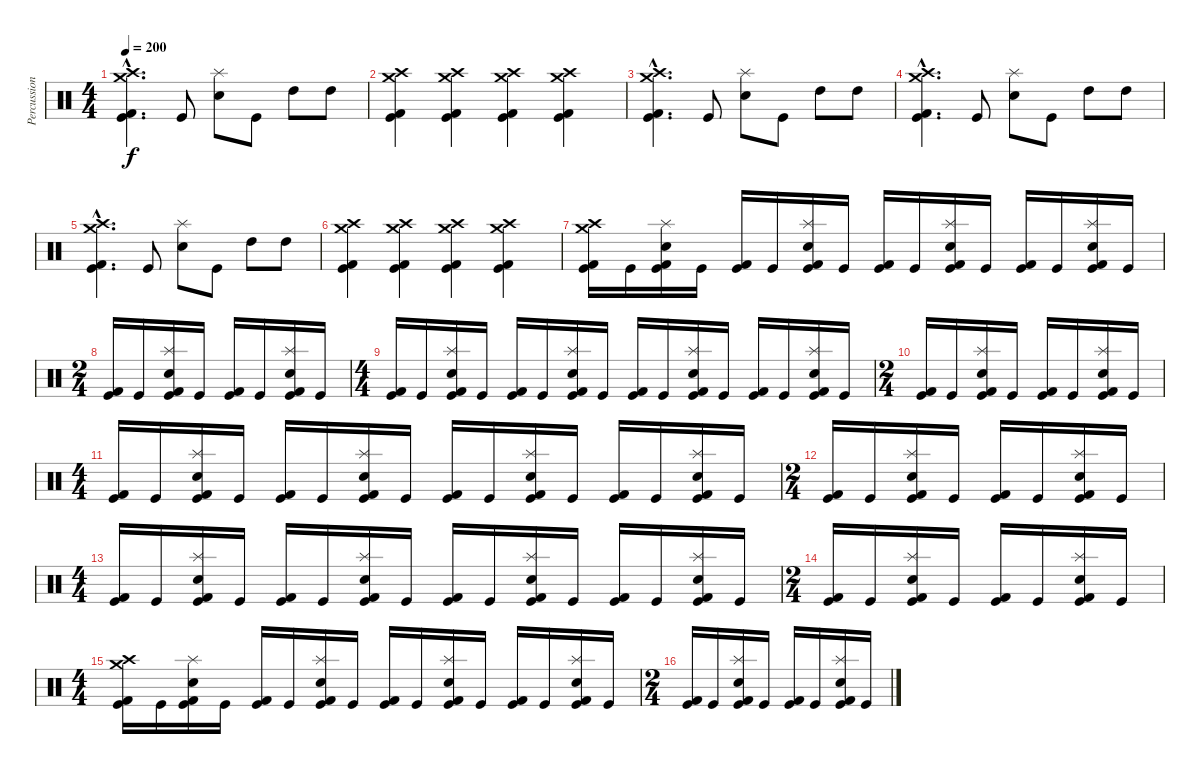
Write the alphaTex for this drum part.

\track ("Percussion" "Percussion") {instrument percussion}
\staff {score}
\articulation defaults
\ts (4 4)
\tempo 200
\clef neutral
\ks c
("Crash high (hit)"{hac} "Crash medium (hit)"{hac} "Kick (hit) 2"{hac} "Kick (hit)"{hac}).4{d dy f} "Kick (hit)".8 ("Splash (hit)" "Snare (hit) 2").8 "Kick (hit)".8 "High Tom (hit)".8 "High Tom (hit)".8 |
("Crash high (hit)" "Crash medium (hit)" "Kick (hit) 2" "Kick (hit)").4 ("Crash high (hit)" "Crash medium (hit)" "Kick (hit) 2" "Kick (hit)").4 ("Crash high (hit)" "Crash medium (hit)" "Kick (hit) 2" "Kick (hit)").4 ("Crash high (hit)" "Crash medium (hit)" "Kick (hit) 2" "Kick (hit)").4 |
("Crash high (hit)"{hac} "Crash medium (hit)"{hac} "Kick (hit) 2"{hac} "Kick (hit)"{hac}).4{d} "Kick (hit)".8 ("Splash (hit)" "Snare (hit) 2").8 "Kick (hit)".8 "High Tom (hit)".8 "High Tom (hit)".8 |
("Crash high (hit)"{hac} "Crash medium (hit)"{hac} "Kick (hit) 2"{hac} "Kick (hit)"{hac}).4{d} "Kick (hit)".8 ("Splash (hit)" "Snare (hit) 2").8 "Kick (hit)".8 "High Tom (hit)".8 "High Tom (hit)".8 |
("Crash high (hit)"{hac} "Crash medium (hit)"{hac} "Kick (hit) 2"{hac} "Kick (hit)"{hac}).4{d} "Kick (hit)".8 ("Splash (hit)" "Snare (hit) 2").8 "Kick (hit)".8 "High Tom (hit)".8 "High Tom (hit)".8 |
("Crash high (hit)" "Crash medium (hit)" "Kick (hit) 2" "Kick (hit)").4 ("Crash high (hit)" "Crash medium (hit)" "Kick (hit) 2" "Kick (hit)").4 ("Crash high (hit)" "Crash medium (hit)" "Kick (hit) 2" "Kick (hit)").4 ("Crash high (hit)" "Crash medium (hit)" "Kick (hit) 2" "Kick (hit)").4 |
("Crash high (hit)" "Crash medium (hit)" "Kick (hit) 2" "Kick (hit)").16 "Kick (hit)".16 ("Splash (hit)" "Snare (hit) 2" "Kick (hit) 2" "Kick (hit)").16 "Kick (hit)".16 ("Kick (hit) 2" "Kick (hit)").16 "Kick (hit)".16 ("Splash (hit)" "Snare (hit) 2" "Kick (hit) 2" "Kick (hit)").16 "Kick (hit)".16 ("Kick (hit) 2" "Kick (hit)").16 "Kick (hit)".16 ("Splash (hit)" "Snare (hit) 2" "Kick (hit) 2" "Kick (hit)").16 "Kick (hit)".16 ("Kick (hit) 2" "Kick (hit)").16 "Kick (hit)".16 ("Splash (hit)" "Snare (hit) 2" "Kick (hit) 2" "Kick (hit)").16 "Kick (hit)".16 |
\ts (2 4)
("Kick (hit) 2" "Kick (hit)").16 "Kick (hit)".16 ("Splash (hit)" "Snare (hit) 2" "Kick (hit) 2" "Kick (hit)").16 "Kick (hit)".16 ("Kick (hit) 2" "Kick (hit)").16 "Kick (hit)".16 ("Splash (hit)" "Snare (hit) 2" "Kick (hit) 2" "Kick (hit)").16 "Kick (hit)".16 |
\ts (4 4)
("Kick (hit) 2" "Kick (hit)").16 "Kick (hit)".16 ("Splash (hit)" "Snare (hit) 2" "Kick (hit) 2" "Kick (hit)").16 "Kick (hit)".16 ("Kick (hit) 2" "Kick (hit)").16 "Kick (hit)".16 ("Splash (hit)" "Snare (hit) 2" "Kick (hit) 2" "Kick (hit)").16 "Kick (hit)".16 ("Kick (hit) 2" "Kick (hit)").16 "Kick (hit)".16 ("Splash (hit)" "Snare (hit) 2" "Kick (hit) 2" "Kick (hit)").16 "Kick (hit)".16 ("Kick (hit) 2" "Kick (hit)").16 "Kick (hit)".16 ("Splash (hit)" "Snare (hit) 2" "Kick (hit) 2" "Kick (hit)").16 "Kick (hit)".16 |
\ts (2 4)
("Kick (hit) 2" "Kick (hit)").16 "Kick (hit)".16 ("Splash (hit)" "Snare (hit) 2" "Kick (hit) 2" "Kick (hit)").16 "Kick (hit)".16 ("Kick (hit) 2" "Kick (hit)").16 "Kick (hit)".16 ("Splash (hit)" "Snare (hit) 2" "Kick (hit) 2" "Kick (hit)").16 "Kick (hit)".16 |
\ts (4 4)
("Kick (hit) 2" "Kick (hit)").16 "Kick (hit)".16 ("Splash (hit)" "Snare (hit) 2" "Kick (hit) 2" "Kick (hit)").16 "Kick (hit)".16 ("Kick (hit) 2" "Kick (hit)").16 "Kick (hit)".16 ("Splash (hit)" "Snare (hit) 2" "Kick (hit) 2" "Kick (hit)").16 "Kick (hit)".16 ("Kick (hit) 2" "Kick (hit)").16 "Kick (hit)".16 ("Splash (hit)" "Snare (hit) 2" "Kick (hit) 2" "Kick (hit)").16 "Kick (hit)".16 ("Kick (hit) 2" "Kick (hit)").16 "Kick (hit)".16 ("Splash (hit)" "Snare (hit) 2" "Kick (hit) 2" "Kick (hit)").16 "Kick (hit)".16 |
\ts (2 4)
("Kick (hit) 2" "Kick (hit)").16 "Kick (hit)".16 ("Splash (hit)" "Snare (hit) 2" "Kick (hit) 2" "Kick (hit)").16 "Kick (hit)".16 ("Kick (hit) 2" "Kick (hit)").16 "Kick (hit)".16 ("Splash (hit)" "Snare (hit) 2" "Kick (hit) 2" "Kick (hit)").16 "Kick (hit)".16 |
\ts (4 4)
("Kick (hit) 2" "Kick (hit)").16 "Kick (hit)".16 ("Splash (hit)" "Snare (hit) 2" "Kick (hit) 2" "Kick (hit)").16 "Kick (hit)".16 ("Kick (hit) 2" "Kick (hit)").16 "Kick (hit)".16 ("Splash (hit)" "Snare (hit) 2" "Kick (hit) 2" "Kick (hit)").16 "Kick (hit)".16 ("Kick (hit) 2" "Kick (hit)").16 "Kick (hit)".16 ("Splash (hit)" "Snare (hit) 2" "Kick (hit) 2" "Kick (hit)").16 "Kick (hit)".16 ("Kick (hit) 2" "Kick (hit)").16 "Kick (hit)".16 ("Splash (hit)" "Snare (hit) 2" "Kick (hit) 2" "Kick (hit)").16 "Kick (hit)".16 |
\ts (2 4)
("Kick (hit) 2" "Kick (hit)").16 "Kick (hit)".16 ("Splash (hit)" "Snare (hit) 2" "Kick (hit) 2" "Kick (hit)").16 "Kick (hit)".16 ("Kick (hit) 2" "Kick (hit)").16 "Kick (hit)".16 ("Splash (hit)" "Snare (hit) 2" "Kick (hit) 2" "Kick (hit)").16 "Kick (hit)".16 |
\ts (4 4)
("Crash high (hit)" "Crash medium (hit)" "Kick (hit) 2" "Kick (hit)").16 "Kick (hit)".16 ("Splash (hit)" "Snare (hit) 2" "Kick (hit) 2" "Kick (hit)").16 "Kick (hit)".16 ("Kick (hit) 2" "Kick (hit)").16 "Kick (hit)".16 ("Splash (hit)" "Snare (hit) 2" "Kick (hit) 2" "Kick (hit)").16 "Kick (hit)".16 ("Kick (hit) 2" "Kick (hit)").16 "Kick (hit)".16 ("Splash (hit)" "Snare (hit) 2" "Kick (hit) 2" "Kick (hit)").16 "Kick (hit)".16 ("Kick (hit) 2" "Kick (hit)").16 "Kick (hit)".16 ("Splash (hit)" "Snare (hit) 2" "Kick (hit) 2" "Kick (hit)").16 "Kick (hit)".16 |
\ts (2 4)
("Kick (hit) 2" "Kick (hit)").16 "Kick (hit)".16 ("Splash (hit)" "Snare (hit) 2" "Kick (hit) 2" "Kick (hit)").16 "Kick (hit)".16 ("Kick (hit) 2" "Kick (hit)").16 "Kick (hit)".16 ("Splash (hit)" "Snare (hit) 2" "Kick (hit) 2" "Kick (hit)").16 "Kick (hit)".16
